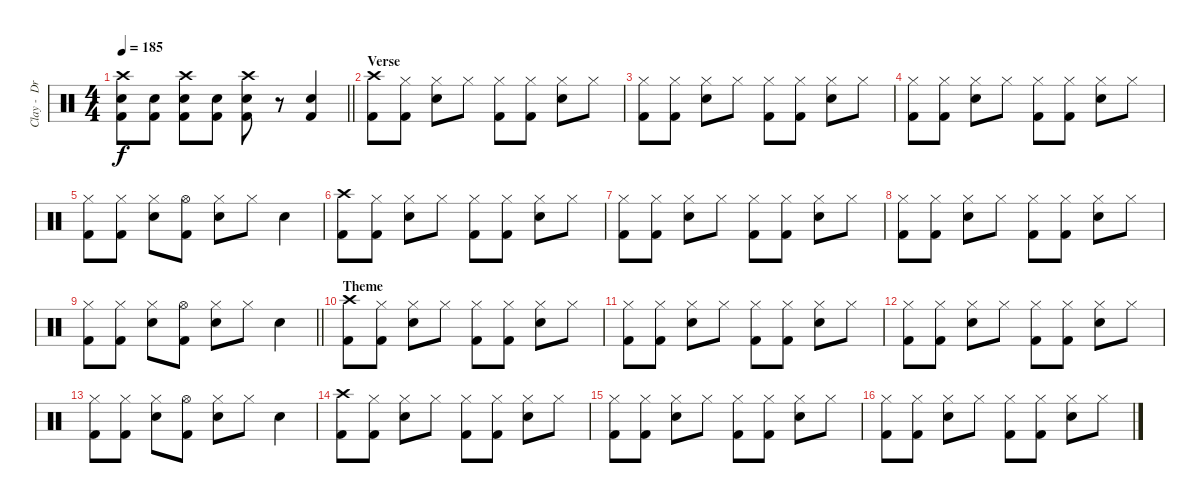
\track ("Clay -  Drums" "Clay -  Dr") {instrument percussion}
\staff {score}
\articulation defaults
\ts (4 4)
\tempo 185
\clef neutral
\barLineRight lightlight
\ks c
("Crash high (hit)" "Electric Snare (hit)" "Kick (hit) 2").8{dy f} ("Electric Snare (hit)" "Kick (hit) 2").8 ("Crash high (hit)" "Electric Snare (hit)" "Kick (hit) 2").8 ("Electric Snare (hit)" "Kick (hit) 2").8 ("Crash high (hit)" "Electric Snare (hit)" "Kick (hit) 2").8 r.8 ("Electric Snare (hit)" "Kick (hit) 2").4 |
\section ("" "Verse")
("Crash high (hit)" "Kick (hit) 2").8 ("Hi-Hat (closed)" "Kick (hit) 2").8 ("Hi-Hat (closed)" "Electric Snare (hit)").8 "Hi-Hat (closed)".8 ("Hi-Hat (closed)" "Kick (hit) 2").8 ("Hi-Hat (closed)" "Kick (hit) 2").8 ("Hi-Hat (closed)" "Electric Snare (hit)").8 "Hi-Hat (closed)".8 |
("Hi-Hat (closed)" "Kick (hit) 2").8 ("Hi-Hat (closed)" "Kick (hit) 2").8 ("Hi-Hat (closed)" "Electric Snare (hit)").8 "Hi-Hat (closed)".8 ("Hi-Hat (closed)" "Kick (hit) 2").8 ("Hi-Hat (closed)" "Kick (hit) 2").8 ("Hi-Hat (closed)" "Electric Snare (hit)").8 "Hi-Hat (closed)".8 |
("Hi-Hat (closed)" "Kick (hit) 2").8 ("Hi-Hat (closed)" "Kick (hit) 2").8 ("Hi-Hat (closed)" "Electric Snare (hit)").8 "Hi-Hat (closed)".8 ("Hi-Hat (closed)" "Kick (hit) 2").8 ("Hi-Hat (closed)" "Kick (hit) 2").8 ("Hi-Hat (closed)" "Electric Snare (hit)").8 "Hi-Hat (closed)".8 |
("Hi-Hat (closed)" "Kick (hit) 2").8 ("Hi-Hat (closed)" "Kick (hit) 2").8 ("Hi-Hat (closed)" "Electric Snare (hit)").8 ("Hi-Hat (open)" "Kick (hit) 2").8 ("Hi-Hat (closed)" "Electric Snare (hit)").8 "Hi-Hat (closed)".8 "Electric Snare (hit)".4 |
("Crash high (hit)" "Kick (hit) 2").8 ("Hi-Hat (closed)" "Kick (hit) 2").8 ("Hi-Hat (closed)" "Electric Snare (hit)").8 "Hi-Hat (closed)".8 ("Hi-Hat (closed)" "Kick (hit) 2").8 ("Hi-Hat (closed)" "Kick (hit) 2").8 ("Hi-Hat (closed)" "Electric Snare (hit)").8 "Hi-Hat (closed)".8 |
("Hi-Hat (closed)" "Kick (hit) 2").8 ("Hi-Hat (closed)" "Kick (hit) 2").8 ("Hi-Hat (closed)" "Electric Snare (hit)").8 "Hi-Hat (closed)".8 ("Hi-Hat (closed)" "Kick (hit) 2").8 ("Hi-Hat (closed)" "Kick (hit) 2").8 ("Hi-Hat (closed)" "Electric Snare (hit)").8 "Hi-Hat (closed)".8 |
("Hi-Hat (closed)" "Kick (hit) 2").8 ("Hi-Hat (closed)" "Kick (hit) 2").8 ("Hi-Hat (closed)" "Electric Snare (hit)").8 "Hi-Hat (closed)".8 ("Hi-Hat (closed)" "Kick (hit) 2").8 ("Hi-Hat (closed)" "Kick (hit) 2").8 ("Hi-Hat (closed)" "Electric Snare (hit)").8 "Hi-Hat (closed)".8 |
\barLineRight lightlight
("Hi-Hat (closed)" "Kick (hit) 2").8 ("Hi-Hat (closed)" "Kick (hit) 2").8 ("Hi-Hat (closed)" "Electric Snare (hit)").8 ("Hi-Hat (open)" "Kick (hit) 2").8 ("Hi-Hat (closed)" "Electric Snare (hit)").8 "Hi-Hat (closed)".8 "Electric Snare (hit)".4 |
\section ("" "Theme")
("Crash high (hit)" "Kick (hit) 2").8 ("Hi-Hat (closed)" "Kick (hit) 2").8 ("Hi-Hat (closed)" "Electric Snare (hit)").8 "Hi-Hat (closed)".8 ("Hi-Hat (closed)" "Kick (hit) 2").8 ("Hi-Hat (closed)" "Kick (hit) 2").8 ("Hi-Hat (closed)" "Electric Snare (hit)").8 "Hi-Hat (closed)".8 |
("Hi-Hat (closed)" "Kick (hit) 2").8 ("Hi-Hat (closed)" "Kick (hit) 2").8 ("Hi-Hat (closed)" "Electric Snare (hit)").8 "Hi-Hat (closed)".8 ("Hi-Hat (closed)" "Kick (hit) 2").8 ("Hi-Hat (closed)" "Kick (hit) 2").8 ("Hi-Hat (closed)" "Electric Snare (hit)").8 "Hi-Hat (closed)".8 |
("Hi-Hat (closed)" "Kick (hit) 2").8 ("Hi-Hat (closed)" "Kick (hit) 2").8 ("Hi-Hat (closed)" "Electric Snare (hit)").8 "Hi-Hat (closed)".8 ("Hi-Hat (closed)" "Kick (hit) 2").8 ("Hi-Hat (closed)" "Kick (hit) 2").8 ("Hi-Hat (closed)" "Electric Snare (hit)").8 "Hi-Hat (closed)".8 |
("Hi-Hat (closed)" "Kick (hit) 2").8 ("Hi-Hat (closed)" "Kick (hit) 2").8 ("Hi-Hat (closed)" "Electric Snare (hit)").8 ("Hi-Hat (open)" "Kick (hit) 2").8 ("Hi-Hat (closed)" "Electric Snare (hit)").8 "Hi-Hat (closed)".8 "Electric Snare (hit)".4 |
("Crash high (hit)" "Kick (hit) 2").8 ("Hi-Hat (closed)" "Kick (hit) 2").8 ("Hi-Hat (closed)" "Electric Snare (hit)").8 "Hi-Hat (closed)".8 ("Hi-Hat (closed)" "Kick (hit) 2").8 ("Hi-Hat (closed)" "Kick (hit) 2").8 ("Hi-Hat (closed)" "Electric Snare (hit)").8 "Hi-Hat (closed)".8 |
("Hi-Hat (closed)" "Kick (hit) 2").8 ("Hi-Hat (closed)" "Kick (hit) 2").8 ("Hi-Hat (closed)" "Electric Snare (hit)").8 "Hi-Hat (closed)".8 ("Hi-Hat (closed)" "Kick (hit) 2").8 ("Hi-Hat (closed)" "Kick (hit) 2").8 ("Hi-Hat (closed)" "Electric Snare (hit)").8 "Hi-Hat (closed)".8 |
("Hi-Hat (closed)" "Kick (hit) 2").8 ("Hi-Hat (closed)" "Kick (hit) 2").8 ("Hi-Hat (closed)" "Electric Snare (hit)").8 "Hi-Hat (closed)".8 ("Hi-Hat (closed)" "Kick (hit) 2").8 ("Hi-Hat (closed)" "Kick (hit) 2").8 ("Hi-Hat (closed)" "Electric Snare (hit)").8 "Hi-Hat (closed)".8
